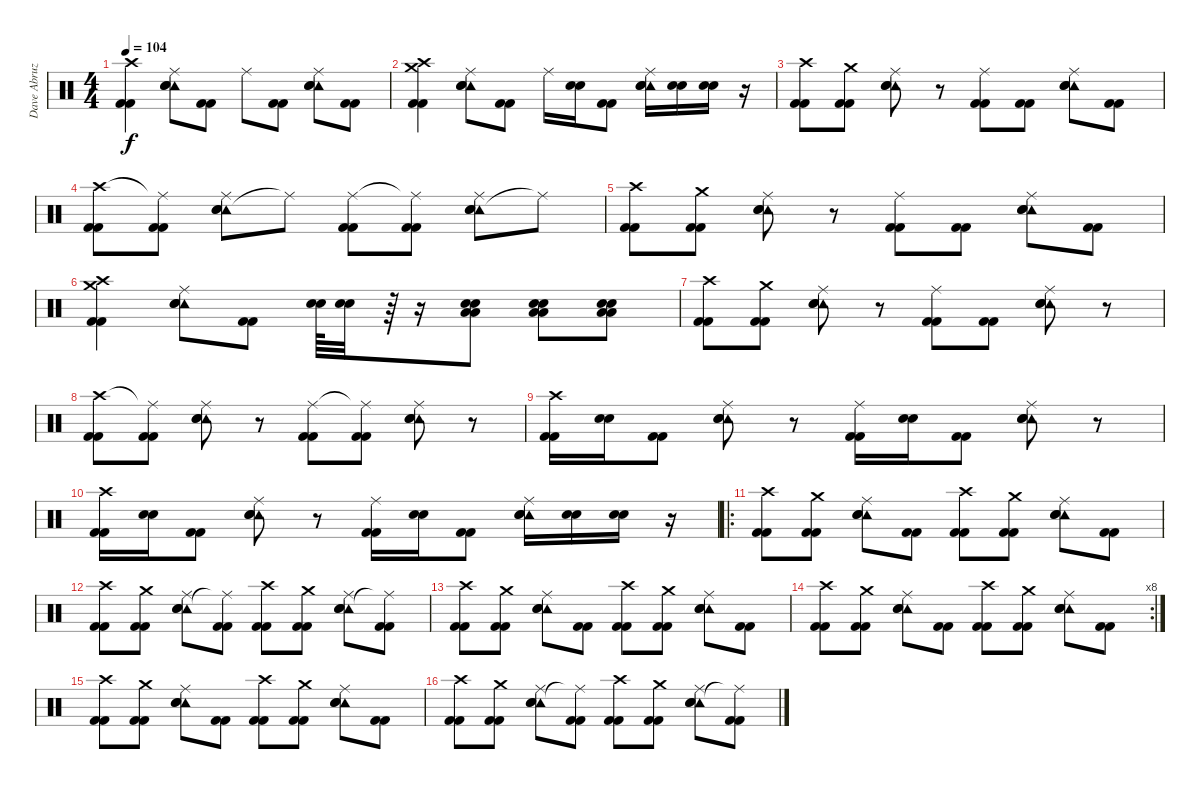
\track ("Dave Abruzzese" "Dave Abruz") {instrument percussion}
\staff {score}
\articulation defaults
\ts (4 4)
\tempo 104
\clef neutral
\ks c
("Kick (hit) 2" "Kick (hit) 2" "Crash high (hit)").4{dy f} ("Tambourine (hit)" "Electric Snare (hit)" "Electric Snare (hit)" "Ride (middle)").8 ("Kick (hit) 2" "Kick (hit) 2").8 "Ride (middle)".8 ("Kick (hit) 2" "Kick (hit) 2").8 ("Tambourine (hit)" "Electric Snare (hit)" "Electric Snare (hit)" "Ride (middle)").8 ("Kick (hit) 2" "Kick (hit) 2").8 |
("Crash medium (hit)" "Kick (hit) 2" "Kick (hit) 2" "Crash high (hit)").4 ("Tambourine (hit)" "Electric Snare (hit)" "Electric Snare (hit)" "Ride (middle)").8 ("Kick (hit) 2" "Kick (hit) 2").8 "Ride (middle)".16 ("Electric Snare (hit)" "Electric Snare (hit)").16 ("Kick (hit) 2" "Kick (hit) 2").8 ("Tambourine (hit)" "Electric Snare (hit)" "Electric Snare (hit)" "Ride (middle)").16 ("Electric Snare (hit)" "Electric Snare (hit)").16 ("Electric Snare (hit)" "Electric Snare (hit)").16 r.16 |
("Crash high (hit)" "Kick (hit) 2" "Kick (hit) 2").8 ("Crash medium (hit)" "Kick (hit) 2" "Kick (hit) 2").8 ("Tambourine (hit)" "Ride (middle)" "Electric Snare (hit)" "Electric Snare (hit)").8 r.8 ("Ride (middle)" "Kick (hit) 2" "Kick (hit) 2").8 ("Kick (hit) 2" "Kick (hit) 2").8 ("Tambourine (hit)" "Ride (middle)" "Electric Snare (hit)" "Electric Snare (hit)").8 ("Kick (hit) 2" "Kick (hit) 2").8 |
("Crash high (hit)" "Kick (hit) 2" "Kick (hit) 2").8 ("Ride (middle)"{t} "Kick (hit) 2" "Kick (hit) 2").8 ("Tambourine (hit)" "Ride (middle)" "Electric Snare (hit)" "Electric Snare (hit)").8 "Ride (middle)"{t}.8 ("Ride (middle)" "Kick (hit) 2" "Kick (hit) 2").8 ("Ride (middle)"{t} "Kick (hit) 2" "Kick (hit) 2").8 ("Tambourine (hit)" "Ride (middle)" "Electric Snare (hit)" "Electric Snare (hit)").8 "Ride (middle)"{t}.8 |
("Crash high (hit)" "Kick (hit) 2" "Kick (hit) 2").8 ("Crash medium (hit)" "Kick (hit) 2" "Kick (hit) 2").8 ("Tambourine (hit)" "Ride (middle)" "Electric Snare (hit)" "Electric Snare (hit)").8 r.8 ("Ride (middle)" "Kick (hit) 2" "Kick (hit) 2").8 ("Kick (hit) 2" "Kick (hit) 2").8 ("Tambourine (hit)" "Ride (middle)" "Electric Snare (hit)" "Electric Snare (hit)").8 ("Kick (hit) 2" "Kick (hit) 2").8 |
("Crash medium (hit)" "Kick (hit) 2" "Kick (hit) 2" "Crash high (hit)").4 ("Tambourine (hit)" "Electric Snare (hit)" "Electric Snare (hit)" "Ride (middle)").8 ("Kick (hit) 2" "Kick (hit) 2").8 ("Electric Snare (hit)" "Electric Snare (hit)").64 ("Electric Snare (hit)" "Electric Snare (hit)").32 r.64 r.16 ("Low Tom (hit)" "Low Tom (hit)" "Electric Snare (hit)" "Electric Snare (hit)").8 ("Low Tom (hit)" "Low Tom (hit)" "Electric Snare (hit)" "Electric Snare (hit)").8 ("Low Tom (hit)" "Low Tom (hit)" "Electric Snare (hit)" "Electric Snare (hit)").8 |
("Crash high (hit)" "Kick (hit) 2" "Kick (hit) 2").8 ("Crash medium (hit)" "Kick (hit) 2" "Kick (hit) 2").8 ("Tambourine (hit)" "Ride (middle)" "Electric Snare (hit)" "Electric Snare (hit)").8 r.8 ("Ride (middle)" "Kick (hit) 2" "Kick (hit) 2").8 ("Kick (hit) 2" "Kick (hit) 2").8 ("Tambourine (hit)" "Ride (middle)" "Electric Snare (hit)" "Electric Snare (hit)").8 r.8 |
("Crash high (hit)" "Kick (hit) 2" "Kick (hit) 2").8 ("Ride (middle)"{t} "Kick (hit) 2" "Kick (hit) 2").8 ("Tambourine (hit)" "Ride (middle)" "Electric Snare (hit)" "Electric Snare (hit)").8 r.8 ("Ride (middle)" "Kick (hit) 2" "Kick (hit) 2").8 ("Ride (middle)"{t} "Kick (hit) 2" "Kick (hit) 2").8 ("Tambourine (hit)" "Ride (middle)" "Electric Snare (hit)" "Electric Snare (hit)").8 r.8 |
("Crash high (hit)" "Kick (hit) 2" "Kick (hit) 2").16 ("Electric Snare (hit)" "Electric Snare (hit)").16 ("Kick (hit) 2" "Kick (hit) 2").8 ("Tambourine (hit)" "Ride (middle)" "Electric Snare (hit)" "Electric Snare (hit)").8 r.8 ("Ride (middle)" "Kick (hit) 2" "Kick (hit) 2").16 ("Electric Snare (hit)" "Electric Snare (hit)").16 ("Kick (hit) 2" "Kick (hit) 2").8 ("Tambourine (hit)" "Ride (middle)" "Electric Snare (hit)" "Electric Snare (hit)").8 r.8 |
("Crash high (hit)" "Kick (hit) 2" "Kick (hit) 2").16 ("Electric Snare (hit)" "Electric Snare (hit)").16 ("Kick (hit) 2" "Kick (hit) 2").8 ("Tambourine (hit)" "Ride (middle)" "Electric Snare (hit)" "Electric Snare (hit)").8 r.8 ("Ride (middle)" "Kick (hit) 2" "Kick (hit) 2").16 ("Electric Snare (hit)" "Electric Snare (hit)").16 ("Kick (hit) 2" "Kick (hit) 2").8 ("Tambourine (hit)" "Ride (middle)" "Electric Snare (hit)" "Electric Snare (hit)").16 ("Electric Snare (hit)" "Electric Snare (hit)").16 ("Electric Snare (hit)" "Electric Snare (hit)").16 r.16 |
\ro
\section ("" "")
("Crash high (hit)" "Kick (hit) 2" "Kick (hit) 2").8 ("Crash medium (hit)" "Kick (hit) 2" "Kick (hit) 2").8 ("Tambourine (hit)" "Ride (middle)" "Electric Snare (hit)" "Electric Snare (hit)").8 ("Kick (hit) 2" "Kick (hit) 2").8 ("Crash high (hit)" "Kick (hit) 2" "Kick (hit) 2").8 ("Crash medium (hit)" "Kick (hit) 2" "Kick (hit) 2").8 ("Tambourine (hit)" "Ride (middle)" "Electric Snare (hit)" "Electric Snare (hit)").8 ("Kick (hit) 2" "Kick (hit) 2").8 |
("Crash high (hit)" "Kick (hit) 2" "Kick (hit) 2").8 ("Crash medium (hit)" "Kick (hit) 2" "Kick (hit) 2").8 ("Tambourine (hit)" "Ride (middle)" "Electric Snare (hit)" "Electric Snare (hit)").8 ("Ride (middle)"{t} "Kick (hit) 2" "Kick (hit) 2").8 ("Crash high (hit)" "Kick (hit) 2" "Kick (hit) 2").8 ("Crash medium (hit)" "Kick (hit) 2" "Kick (hit) 2").8 ("Tambourine (hit)" "Ride (middle)" "Electric Snare (hit)" "Electric Snare (hit)").8 ("Ride (middle)"{t} "Kick (hit) 2" "Kick (hit) 2").8 |
("Crash high (hit)" "Kick (hit) 2" "Kick (hit) 2").8 ("Crash medium (hit)" "Kick (hit) 2" "Kick (hit) 2").8 ("Tambourine (hit)" "Ride (middle)" "Electric Snare (hit)" "Electric Snare (hit)").8 ("Kick (hit) 2" "Kick (hit) 2").8 ("Crash high (hit)" "Kick (hit) 2" "Kick (hit) 2").8 ("Crash medium (hit)" "Kick (hit) 2" "Kick (hit) 2").8 ("Tambourine (hit)" "Ride (middle)" "Electric Snare (hit)" "Electric Snare (hit)").8 ("Kick (hit) 2" "Kick (hit) 2").8 |
\rc 8
("Crash high (hit)" "Kick (hit) 2" "Kick (hit) 2").8 ("Crash medium (hit)" "Kick (hit) 2" "Kick (hit) 2").8 ("Tambourine (hit)" "Ride (middle)" "Electric Snare (hit)" "Electric Snare (hit)").8 ("Kick (hit) 2" "Kick (hit) 2").8 ("Crash high (hit)" "Kick (hit) 2" "Kick (hit) 2").8 ("Crash medium (hit)" "Kick (hit) 2" "Kick (hit) 2").8 ("Tambourine (hit)" "Ride (middle)" "Electric Snare (hit)" "Electric Snare (hit)").8 ("Kick (hit) 2" "Kick (hit) 2").8 |
("Crash high (hit)" "Kick (hit) 2" "Kick (hit) 2").8 ("Crash medium (hit)" "Kick (hit) 2" "Kick (hit) 2").8 ("Tambourine (hit)" "Ride (middle)" "Electric Snare (hit)" "Electric Snare (hit)").8 ("Kick (hit) 2" "Kick (hit) 2").8 ("Crash high (hit)" "Kick (hit) 2" "Kick (hit) 2").8 ("Crash medium (hit)" "Kick (hit) 2" "Kick (hit) 2").8 ("Tambourine (hit)" "Ride (middle)" "Electric Snare (hit)" "Electric Snare (hit)").8 ("Kick (hit) 2" "Kick (hit) 2").8 |
("Crash high (hit)" "Kick (hit) 2" "Kick (hit) 2").8 ("Crash medium (hit)" "Kick (hit) 2" "Kick (hit) 2").8 ("Tambourine (hit)" "Ride (middle)" "Electric Snare (hit)" "Electric Snare (hit)").8 ("Ride (middle)"{t} "Kick (hit) 2" "Kick (hit) 2").8 ("Crash high (hit)" "Kick (hit) 2" "Kick (hit) 2").8 ("Crash medium (hit)" "Kick (hit) 2" "Kick (hit) 2").8 ("Tambourine (hit)" "Ride (middle)" "Electric Snare (hit)" "Electric Snare (hit)").8 ("Ride (middle)"{t} "Kick (hit) 2" "Kick (hit) 2").8
